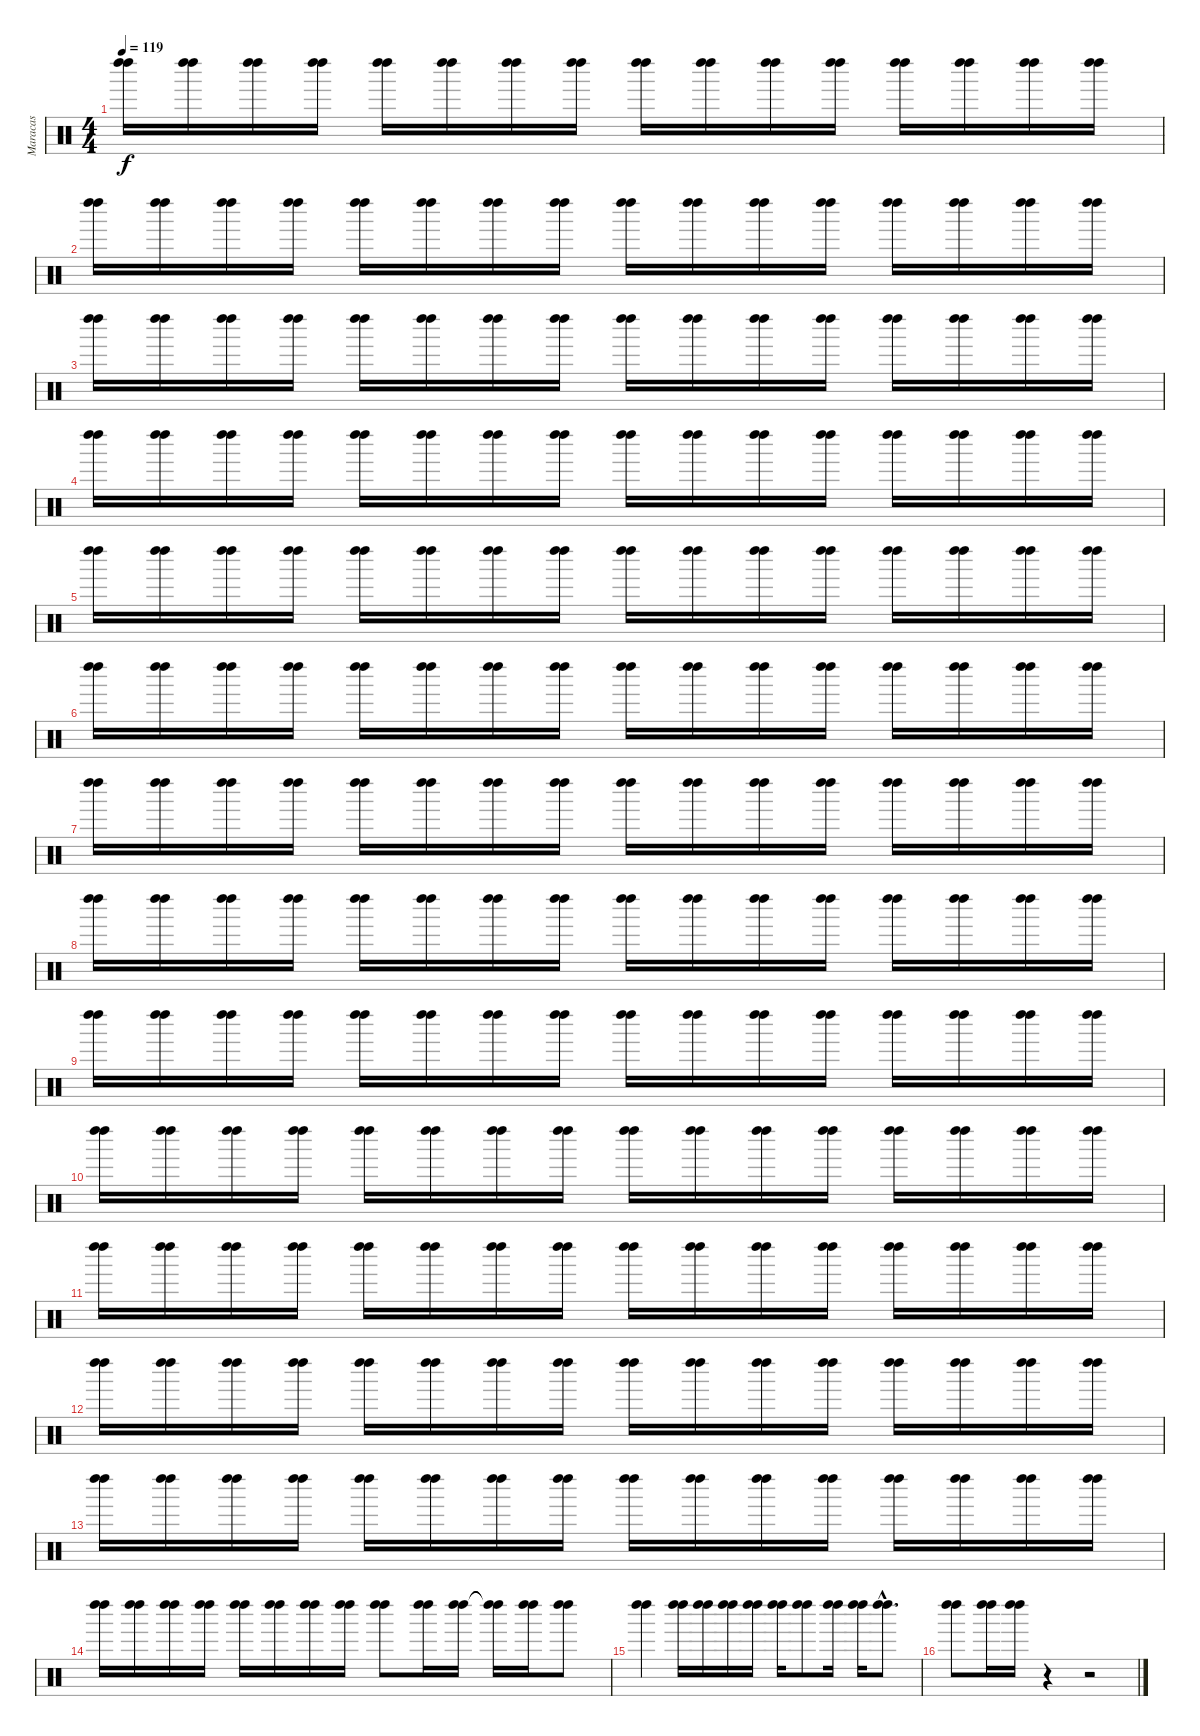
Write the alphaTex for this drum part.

\track ("Maracas" "Maracas") {instrument percussion}
\staff {score}
\articulation defaults
\ts (4 4)
\tempo 119
\clef neutral
\ks c
("Left Maraca (hit)" "Left Maraca (hit)").16{dy f} ("Left Maraca (hit)" "Left Maraca (hit)").16 ("Left Maraca (hit)" "Left Maraca (hit)").16 ("Left Maraca (hit)" "Left Maraca (hit)").16 ("Left Maraca (hit)" "Left Maraca (hit)").16 ("Left Maraca (hit)" "Left Maraca (hit)").16 ("Left Maraca (hit)" "Left Maraca (hit)").16 ("Left Maraca (hit)" "Left Maraca (hit)").16 ("Left Maraca (hit)" "Left Maraca (hit)").16 ("Left Maraca (hit)" "Left Maraca (hit)").16 ("Left Maraca (hit)" "Left Maraca (hit)").16 ("Left Maraca (hit)" "Left Maraca (hit)").16 ("Left Maraca (hit)" "Left Maraca (hit)").16 ("Left Maraca (hit)" "Left Maraca (hit)").16 ("Left Maraca (hit)" "Left Maraca (hit)").16 ("Left Maraca (hit)" "Left Maraca (hit)").16 |
("Left Maraca (hit)" "Left Maraca (hit)").16 ("Left Maraca (hit)" "Left Maraca (hit)").16 ("Left Maraca (hit)" "Left Maraca (hit)").16 ("Left Maraca (hit)" "Left Maraca (hit)").16 ("Left Maraca (hit)" "Left Maraca (hit)").16 ("Left Maraca (hit)" "Left Maraca (hit)").16 ("Left Maraca (hit)" "Left Maraca (hit)").16 ("Left Maraca (hit)" "Left Maraca (hit)").16 ("Left Maraca (hit)" "Left Maraca (hit)").16 ("Left Maraca (hit)" "Left Maraca (hit)").16 ("Left Maraca (hit)" "Left Maraca (hit)").16 ("Left Maraca (hit)" "Left Maraca (hit)").16 ("Left Maraca (hit)" "Left Maraca (hit)").16 ("Left Maraca (hit)" "Left Maraca (hit)").16 ("Left Maraca (hit)" "Left Maraca (hit)").16 ("Left Maraca (hit)" "Left Maraca (hit)").16 |
("Left Maraca (hit)" "Left Maraca (hit)").16 ("Left Maraca (hit)" "Left Maraca (hit)").16 ("Left Maraca (hit)" "Left Maraca (hit)").16 ("Left Maraca (hit)" "Left Maraca (hit)").16 ("Left Maraca (hit)" "Left Maraca (hit)").16 ("Left Maraca (hit)" "Left Maraca (hit)").16 ("Left Maraca (hit)" "Left Maraca (hit)").16 ("Left Maraca (hit)" "Left Maraca (hit)").16 ("Left Maraca (hit)" "Left Maraca (hit)").16 ("Left Maraca (hit)" "Left Maraca (hit)").16 ("Left Maraca (hit)" "Left Maraca (hit)").16 ("Left Maraca (hit)" "Left Maraca (hit)").16 ("Left Maraca (hit)" "Left Maraca (hit)").16 ("Left Maraca (hit)" "Left Maraca (hit)").16 ("Left Maraca (hit)" "Left Maraca (hit)").16 ("Left Maraca (hit)" "Left Maraca (hit)").16 |
("Left Maraca (hit)" "Left Maraca (hit)").16 ("Left Maraca (hit)" "Left Maraca (hit)").16 ("Left Maraca (hit)" "Left Maraca (hit)").16 ("Left Maraca (hit)" "Left Maraca (hit)").16 ("Left Maraca (hit)" "Left Maraca (hit)").16 ("Left Maraca (hit)" "Left Maraca (hit)").16 ("Left Maraca (hit)" "Left Maraca (hit)").16 ("Left Maraca (hit)" "Left Maraca (hit)").16 ("Left Maraca (hit)" "Left Maraca (hit)").16 ("Left Maraca (hit)" "Left Maraca (hit)").16 ("Left Maraca (hit)" "Left Maraca (hit)").16 ("Left Maraca (hit)" "Left Maraca (hit)").16 ("Left Maraca (hit)" "Left Maraca (hit)").16 ("Left Maraca (hit)" "Left Maraca (hit)").16 ("Left Maraca (hit)" "Left Maraca (hit)").16 ("Left Maraca (hit)" "Left Maraca (hit)").16 |
("Left Maraca (hit)" "Left Maraca (hit)").16 ("Left Maraca (hit)" "Left Maraca (hit)").16 ("Left Maraca (hit)" "Left Maraca (hit)").16 ("Left Maraca (hit)" "Left Maraca (hit)").16 ("Left Maraca (hit)" "Left Maraca (hit)").16 ("Left Maraca (hit)" "Left Maraca (hit)").16 ("Left Maraca (hit)" "Left Maraca (hit)").16 ("Left Maraca (hit)" "Left Maraca (hit)").16 ("Left Maraca (hit)" "Left Maraca (hit)").16 ("Left Maraca (hit)" "Left Maraca (hit)").16 ("Left Maraca (hit)" "Left Maraca (hit)").16 ("Left Maraca (hit)" "Left Maraca (hit)").16 ("Left Maraca (hit)" "Left Maraca (hit)").16 ("Left Maraca (hit)" "Left Maraca (hit)").16 ("Left Maraca (hit)" "Left Maraca (hit)").16 ("Left Maraca (hit)" "Left Maraca (hit)").16 |
("Left Maraca (hit)" "Left Maraca (hit)").16 ("Left Maraca (hit)" "Left Maraca (hit)").16 ("Left Maraca (hit)" "Left Maraca (hit)").16 ("Left Maraca (hit)" "Left Maraca (hit)").16 ("Left Maraca (hit)" "Left Maraca (hit)").16 ("Left Maraca (hit)" "Left Maraca (hit)").16 ("Left Maraca (hit)" "Left Maraca (hit)").16 ("Left Maraca (hit)" "Left Maraca (hit)").16 ("Left Maraca (hit)" "Left Maraca (hit)").16 ("Left Maraca (hit)" "Left Maraca (hit)").16 ("Left Maraca (hit)" "Left Maraca (hit)").16 ("Left Maraca (hit)" "Left Maraca (hit)").16 ("Left Maraca (hit)" "Left Maraca (hit)").16 ("Left Maraca (hit)" "Left Maraca (hit)").16 ("Left Maraca (hit)" "Left Maraca (hit)").16 ("Left Maraca (hit)" "Left Maraca (hit)").16 |
("Left Maraca (hit)" "Left Maraca (hit)").16 ("Left Maraca (hit)" "Left Maraca (hit)").16 ("Left Maraca (hit)" "Left Maraca (hit)").16 ("Left Maraca (hit)" "Left Maraca (hit)").16 ("Left Maraca (hit)" "Left Maraca (hit)").16 ("Left Maraca (hit)" "Left Maraca (hit)").16 ("Left Maraca (hit)" "Left Maraca (hit)").16 ("Left Maraca (hit)" "Left Maraca (hit)").16 ("Left Maraca (hit)" "Left Maraca (hit)").16 ("Left Maraca (hit)" "Left Maraca (hit)").16 ("Left Maraca (hit)" "Left Maraca (hit)").16 ("Left Maraca (hit)" "Left Maraca (hit)").16 ("Left Maraca (hit)" "Left Maraca (hit)").16 ("Left Maraca (hit)" "Left Maraca (hit)").16 ("Left Maraca (hit)" "Left Maraca (hit)").16 ("Left Maraca (hit)" "Left Maraca (hit)").16 |
("Left Maraca (hit)" "Left Maraca (hit)").16 ("Left Maraca (hit)" "Left Maraca (hit)").16 ("Left Maraca (hit)" "Left Maraca (hit)").16 ("Left Maraca (hit)" "Left Maraca (hit)").16 ("Left Maraca (hit)" "Left Maraca (hit)").16 ("Left Maraca (hit)" "Left Maraca (hit)").16 ("Left Maraca (hit)" "Left Maraca (hit)").16 ("Left Maraca (hit)" "Left Maraca (hit)").16 ("Left Maraca (hit)" "Left Maraca (hit)").16 ("Left Maraca (hit)" "Left Maraca (hit)").16 ("Left Maraca (hit)" "Left Maraca (hit)").16 ("Left Maraca (hit)" "Left Maraca (hit)").16 ("Left Maraca (hit)" "Left Maraca (hit)").16 ("Left Maraca (hit)" "Left Maraca (hit)").16 ("Left Maraca (hit)" "Left Maraca (hit)").16 ("Left Maraca (hit)" "Left Maraca (hit)").16 |
("Left Maraca (hit)" "Left Maraca (hit)").16 ("Left Maraca (hit)" "Left Maraca (hit)").16 ("Left Maraca (hit)" "Left Maraca (hit)").16 ("Left Maraca (hit)" "Left Maraca (hit)").16 ("Left Maraca (hit)" "Left Maraca (hit)").16 ("Left Maraca (hit)" "Left Maraca (hit)").16 ("Left Maraca (hit)" "Left Maraca (hit)").16 ("Left Maraca (hit)" "Left Maraca (hit)").16 ("Left Maraca (hit)" "Left Maraca (hit)").16 ("Left Maraca (hit)" "Left Maraca (hit)").16 ("Left Maraca (hit)" "Left Maraca (hit)").16 ("Left Maraca (hit)" "Left Maraca (hit)").16 ("Left Maraca (hit)" "Left Maraca (hit)").16 ("Left Maraca (hit)" "Left Maraca (hit)").16 ("Left Maraca (hit)" "Left Maraca (hit)").16 ("Left Maraca (hit)" "Left Maraca (hit)").16 |
("Left Maraca (hit)" "Left Maraca (hit)").16 ("Left Maraca (hit)" "Left Maraca (hit)").16 ("Left Maraca (hit)" "Left Maraca (hit)").16 ("Left Maraca (hit)" "Left Maraca (hit)").16 ("Left Maraca (hit)" "Left Maraca (hit)").16 ("Left Maraca (hit)" "Left Maraca (hit)").16 ("Left Maraca (hit)" "Left Maraca (hit)").16 ("Left Maraca (hit)" "Left Maraca (hit)").16 ("Left Maraca (hit)" "Left Maraca (hit)").16 ("Left Maraca (hit)" "Left Maraca (hit)").16 ("Left Maraca (hit)" "Left Maraca (hit)").16 ("Left Maraca (hit)" "Left Maraca (hit)").16 ("Left Maraca (hit)" "Left Maraca (hit)").16 ("Left Maraca (hit)" "Left Maraca (hit)").16 ("Left Maraca (hit)" "Left Maraca (hit)").16 ("Left Maraca (hit)" "Left Maraca (hit)").16 |
("Left Maraca (hit)" "Left Maraca (hit)").16 ("Left Maraca (hit)" "Left Maraca (hit)").16 ("Left Maraca (hit)" "Left Maraca (hit)").16 ("Left Maraca (hit)" "Left Maraca (hit)").16 ("Left Maraca (hit)" "Left Maraca (hit)").16 ("Left Maraca (hit)" "Left Maraca (hit)").16 ("Left Maraca (hit)" "Left Maraca (hit)").16 ("Left Maraca (hit)" "Left Maraca (hit)").16 ("Left Maraca (hit)" "Left Maraca (hit)").16 ("Left Maraca (hit)" "Left Maraca (hit)").16 ("Left Maraca (hit)" "Left Maraca (hit)").16 ("Left Maraca (hit)" "Left Maraca (hit)").16 ("Left Maraca (hit)" "Left Maraca (hit)").16 ("Left Maraca (hit)" "Left Maraca (hit)").16 ("Left Maraca (hit)" "Left Maraca (hit)").16 ("Left Maraca (hit)" "Left Maraca (hit)").16 |
("Left Maraca (hit)" "Left Maraca (hit)").16 ("Left Maraca (hit)" "Left Maraca (hit)").16 ("Left Maraca (hit)" "Left Maraca (hit)").16 ("Left Maraca (hit)" "Left Maraca (hit)").16 ("Left Maraca (hit)" "Left Maraca (hit)").16 ("Left Maraca (hit)" "Left Maraca (hit)").16 ("Left Maraca (hit)" "Left Maraca (hit)").16 ("Left Maraca (hit)" "Left Maraca (hit)").16 ("Left Maraca (hit)" "Left Maraca (hit)").16 ("Left Maraca (hit)" "Left Maraca (hit)").16 ("Left Maraca (hit)" "Left Maraca (hit)").16 ("Left Maraca (hit)" "Left Maraca (hit)").16 ("Left Maraca (hit)" "Left Maraca (hit)").16 ("Left Maraca (hit)" "Left Maraca (hit)").16 ("Left Maraca (hit)" "Left Maraca (hit)").16 ("Left Maraca (hit)" "Left Maraca (hit)").16 |
("Left Maraca (hit)" "Left Maraca (hit)").16 ("Left Maraca (hit)" "Left Maraca (hit)").16 ("Left Maraca (hit)" "Left Maraca (hit)").16 ("Left Maraca (hit)" "Left Maraca (hit)").16 ("Left Maraca (hit)" "Left Maraca (hit)").16 ("Left Maraca (hit)" "Left Maraca (hit)").16 ("Left Maraca (hit)" "Left Maraca (hit)").16 ("Left Maraca (hit)" "Left Maraca (hit)").16 ("Left Maraca (hit)" "Left Maraca (hit)").16 ("Left Maraca (hit)" "Left Maraca (hit)").16 ("Left Maraca (hit)" "Left Maraca (hit)").16 ("Left Maraca (hit)" "Left Maraca (hit)").16 ("Left Maraca (hit)" "Left Maraca (hit)").16 ("Left Maraca (hit)" "Left Maraca (hit)").16 ("Left Maraca (hit)" "Left Maraca (hit)").16 ("Left Maraca (hit)" "Left Maraca (hit)").16 |
("Left Maraca (hit)" "Left Maraca (hit)").16 ("Left Maraca (hit)" "Left Maraca (hit)").16 ("Left Maraca (hit)" "Left Maraca (hit)").16 ("Left Maraca (hit)" "Left Maraca (hit)").16 ("Left Maraca (hit)" "Left Maraca (hit)").16 ("Left Maraca (hit)" "Left Maraca (hit)").16 ("Left Maraca (hit)" "Left Maraca (hit)").16 ("Left Maraca (hit)" "Left Maraca (hit)").16 ("Left Maraca (hit)" "Left Maraca (hit)").8 ("Left Maraca (hit)" "Left Maraca (hit)").16 ("Left Maraca (hit)" "Left Maraca (hit)").16 ("Left Maraca (hit)"{t} "Left Maraca (hit)"{t}).16 ("Left Maraca (hit)" "Left Maraca (hit)").16 ("Left Maraca (hit)" "Left Maraca (hit)").8 |
("Left Maraca (hit)" "Left Maraca (hit)").4 ("Left Maraca (hit)" "Left Maraca (hit)").16 ("Left Maraca (hit)" "Left Maraca (hit)").16 ("Left Maraca (hit)" "Left Maraca (hit)").16 ("Left Maraca (hit)" "Left Maraca (hit)").16 ("Left Maraca (hit)" "Left Maraca (hit)").16 ("Left Maraca (hit)" "Left Maraca (hit)").8 ("Left Maraca (hit)" "Left Maraca (hit)").16 ("Left Maraca (hit)" "Left Maraca (hit)").16 ("Left Maraca (hit)"{hac} "Left Maraca (hit)"{hac}).8{d} |
("Left Maraca (hit)" "Left Maraca (hit)").8 ("Left Maraca (hit)" "Left Maraca (hit)").16 ("Left Maraca (hit)" "Left Maraca (hit)").16 r.4 r.2
